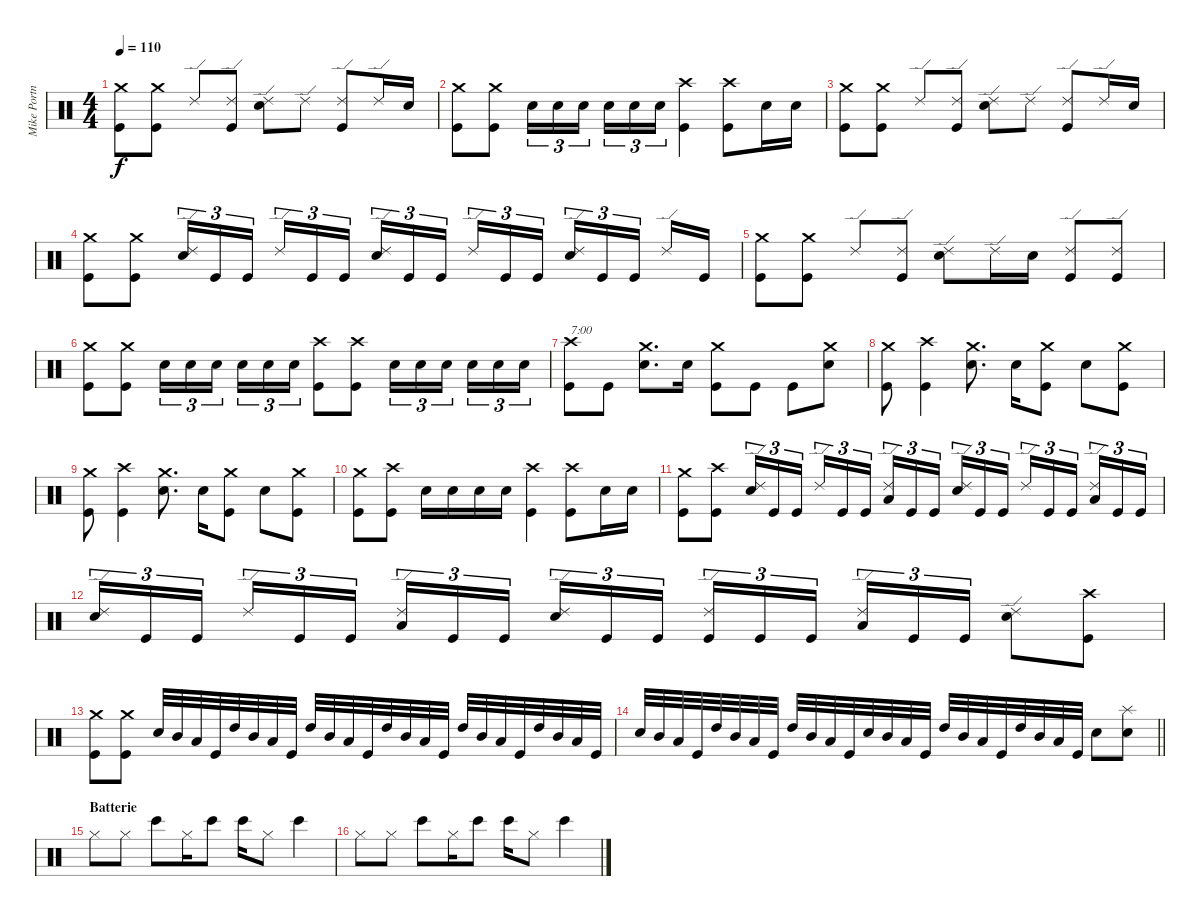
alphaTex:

\track ("Mike Portnoy" "Mike Portn") {instrument percussion}
\staff {score}
\articulation defaults
\ts (4 4)
\tempo 110
\clef neutral
\ks c
("Crash medium (hit)" "Kick (hit)").8{dy f} ("Crash medium (hit)" "Kick (hit)").8 "Ride (edge) 2".8 ("Ride (edge) 2" "Kick (hit)").8 ("Ride (edge) 2" "Snare (hit) 2").8 "Ride (edge) 2".8 ("Ride (edge) 2" "Kick (hit)").8 "Ride (edge) 2".16 "Snare (hit) 2".16 |
("Crash medium (hit)" "Kick (hit)").8 ("Crash medium (hit)" "Kick (hit)").8 "Snare (hit) 2".16{tu (3 2)} "Snare (hit) 2".16{tu (3 2)} "Snare (hit) 2".16{tu (3 2)} "Snare (hit) 2".16{tu (3 2)} "Snare (hit) 2".16{tu (3 2)} "Snare (hit) 2".16{tu (3 2)} ("Crash high (hit)" "Kick (hit)").4 ("Crash high (hit)" "Kick (hit)").8 "Snare (hit) 2".16 "Snare (hit) 2".16 |
("Crash medium (hit)" "Kick (hit)").8 ("Crash medium (hit)" "Kick (hit)").8 "Ride (edge) 2".8 ("Ride (edge) 2" "Kick (hit)").8 ("Ride (edge) 2" "Snare (hit) 2").8 "Ride (edge) 2".8 ("Ride (edge) 2" "Kick (hit)").8 "Ride (edge) 2".16 "Snare (hit) 2".16 |
("Crash medium (hit)" "Kick (hit)").8 ("Crash medium (hit)" "Kick (hit)").8 ("Ride (edge) 2" "Snare (hit) 2").16{tu (3 2)} "Kick (hit)".16{tu (3 2)} "Kick (hit)".16{tu (3 2)} "Ride (edge) 2".16{tu (3 2)} "Kick (hit)".16{tu (3 2)} "Kick (hit)".16{tu (3 2)} ("Ride (edge) 2" "Snare (hit) 2").16{tu (3 2)} "Kick (hit)".16{tu (3 2)} "Kick (hit)".16{tu (3 2)} "Ride (edge) 2".16{tu (3 2)} "Kick (hit)".16{tu (3 2)} "Kick (hit)".16{tu (3 2)} ("Ride (edge) 2" "Snare (hit) 2").16{tu (3 2)} "Kick (hit)".16{tu (3 2)} "Kick (hit)".16{tu (3 2)} "Ride (edge) 2".16 "Kick (hit)".16 |
("Crash medium (hit)" "Kick (hit)").8 ("Crash medium (hit)" "Kick (hit)").8 "Ride (edge) 2".8 ("Ride (edge) 2" "Kick (hit)").8 ("Ride (edge) 2" "Snare (hit) 2").8 "Ride (edge) 2".16 "Snare (hit) 2".16 ("Ride (edge) 2" "Kick (hit)").8 ("Ride (edge) 2" "Kick (hit)").8 |
("Crash medium (hit)" "Kick (hit)").8 ("Crash medium (hit)" "Kick (hit)").8 "Snare (hit) 2".16{tu (3 2)} "Snare (hit) 2".16{tu (3 2)} "Snare (hit) 2".16{tu (3 2)} "Snare (hit) 2".16{tu (3 2)} "Snare (hit) 2".16{tu (3 2)} "Snare (hit) 2".16{tu (3 2)} ("Crash high (hit)" "Kick (hit)").8 ("Crash high (hit)" "Kick (hit)").8 "Snare (hit) 2".16{tu (3 2)} "Snare (hit) 2".16{tu (3 2)} "Snare (hit) 2".16{tu (3 2)} "Snare (hit) 2".16{tu (3 2)} "Snare (hit) 2".16{tu (3 2)} "Snare (hit) 2".16{tu (3 2)} |
("Crash high (hit)" "Kick (hit)").8{txt "7:00"} "Kick (hit)".8 ("Crash medium (hit)" "Snare (hit) 2").8{d} "Snare (hit) 2".16 ("Crash medium (hit)" "Kick (hit)").8 "Kick (hit)".8 "Kick (hit)".8 ("Crash medium (hit)" "Snare (hit) 2").8 |
("Crash medium (hit)" "Kick (hit)").8 ("Crash high (hit)" "Kick (hit)").4 ("Crash medium (hit)" "Snare (hit) 2").8{d} "Snare (hit) 2".16 ("Crash medium (hit)" "Kick (hit)").8 "Snare (hit) 2".8 ("Crash medium (hit)" "Kick (hit)").8 |
("Crash medium (hit)" "Kick (hit)").8 ("Crash high (hit)" "Kick (hit)").4 ("Crash medium (hit)" "Snare (hit) 2").8{d} "Snare (hit) 2".16 ("Crash medium (hit)" "Kick (hit)").8 "Snare (hit) 2".8 ("Crash medium (hit)" "Kick (hit)").8 |
("Crash medium (hit)" "Kick (hit)").8 ("Crash high (hit)" "Kick (hit)").8 "Snare (hit) 2".16 "Snare (hit) 2".16 "Snare (hit) 2".16 "Snare (hit) 2".16 ("Crash high (hit)" "Kick (hit)").4 ("Crash high (hit)" "Kick (hit)").8 "Snare (hit) 2".16 "Snare (hit) 2".16 |
("Crash medium (hit)" "Kick (hit)").8 ("Crash high (hit)" "Kick (hit)").8 ("Ride (edge) 2" "Snare (hit) 2").16{tu (3 2)} "Kick (hit)".16{tu (3 2)} "Kick (hit)".16{tu (3 2)} "Ride (edge) 2".16{tu (3 2)} "Kick (hit)".16{tu (3 2)} "Kick (hit)".16{tu (3 2)} ("Ride (edge) 2" "Low Tom (hit)").16{tu (3 2)} "Kick (hit)".16{tu (3 2)} "Kick (hit)".16{tu (3 2)} ("Ride (edge) 2" "Snare (hit) 2").16{tu (3 2)} "Kick (hit)".16{tu (3 2)} "Kick (hit)".16{tu (3 2)} "Ride (edge) 2".16{tu (3 2)} "Kick (hit)".16{tu (3 2)} "Kick (hit)".16{tu (3 2)} ("Ride (edge) 2" "Low Tom (hit)").16{tu (3 2)} "Kick (hit)".16{tu (3 2)} "Kick (hit)".16{tu (3 2)} |
("Ride (edge) 2" "Snare (hit) 2").16{tu (3 2)} "Kick (hit)".16{tu (3 2)} "Kick (hit)".16{tu (3 2)} "Ride (edge) 2".16{tu (3 2)} "Kick (hit)".16{tu (3 2)} "Kick (hit)".16{tu (3 2)} ("Ride (edge) 2" "Low Tom (hit)").16{tu (3 2)} "Kick (hit)".16{tu (3 2)} "Kick (hit)".16{tu (3 2)} ("Ride (edge) 2" "Snare (hit) 2").16{tu (3 2)} "Kick (hit)".16{tu (3 2)} "Kick (hit)".16{tu (3 2)} ("Ride (edge) 2" "Kick (hit)").16{tu (3 2)} "Kick (hit)".16{tu (3 2)} "Kick (hit)".16{tu (3 2)} ("Ride (edge) 2" "Low Tom (hit)").16{tu (3 2)} "Kick (hit)".16{tu (3 2)} "Kick (hit)".16{tu (3 2)} ("Ride (edge) 2" "Snare (hit) 2").8 ("Crash high (hit)" "Kick (hit)").8 |
("Crash medium (hit)" "Kick (hit)").8 ("Crash medium (hit)" "Kick (hit)").8 "Snare (hit) 2".32 "Mid Tom (hit)".32 "Low Tom (hit)".32 "Kick (hit)".32 "High Tom (hit)".32 "Mid Tom (hit)".32 "Low Tom (hit)".32 "Kick (hit)".32 "High Tom (hit)".32 "Mid Tom (hit)".32 "Low Tom (hit)".32 "Kick (hit)".32 "High Tom (hit)".32 "Mid Tom (hit)".32 "Low Tom (hit)".32 "Kick (hit)".32 "High Tom (hit)".32 "Mid Tom (hit)".32 "Low Tom (hit)".32 "Kick (hit)".32 "High Tom (hit)".32 "Mid Tom (hit)".32 "Low Tom (hit)".32 "Kick (hit)".32 |
\barLineRight lightlight "Snare (hit) 2".32 "Mid Tom (hit)".32 "Low Tom (hit)".32 "Kick (hit)".32 "High Tom (hit)".32 "Mid Tom (hit)".32 "Low Tom (hit)".32 "Kick (hit)".32 "High Tom (hit)".32 "Mid Tom (hit)".32 "Low Tom (hit)".32 "Kick (hit)".32 "Snare (hit) 2".32 "Mid Tom (hit)".32 "Low Tom (hit)".32 "Kick (hit)".32 "High Tom (hit)".32 "Mid Tom (hit)".32 "Low Tom (hit)".32 "Kick (hit)".32 "High Tom (hit)".32 "Mid Tom (hit)".32 "Low Tom (hit)".32 "Kick (hit)".32 "Snare (hit) 2".8
("Splash (hit)" "Snare (hit) 2").8 |
\section ("" "Batterie")
"Hi-Hat (closed)".8 "Hi-Hat (closed)".8 "Bongo High (hit)".8 "Hi-Hat (closed)".16 "Bongo High (hit)".8 "Bongo High (hit)".16 "Hi-Hat (closed)".8 "Bongo High (hit)".4 |
"Hi-Hat (closed)".8 "Hi-Hat (closed)".8 "Bongo High (hit)".8 "Hi-Hat (closed)".16 "Bongo High (hit)".8 "Bongo High (hit)".16 "Hi-Hat (closed)".8 "Bongo High (hit)".4
